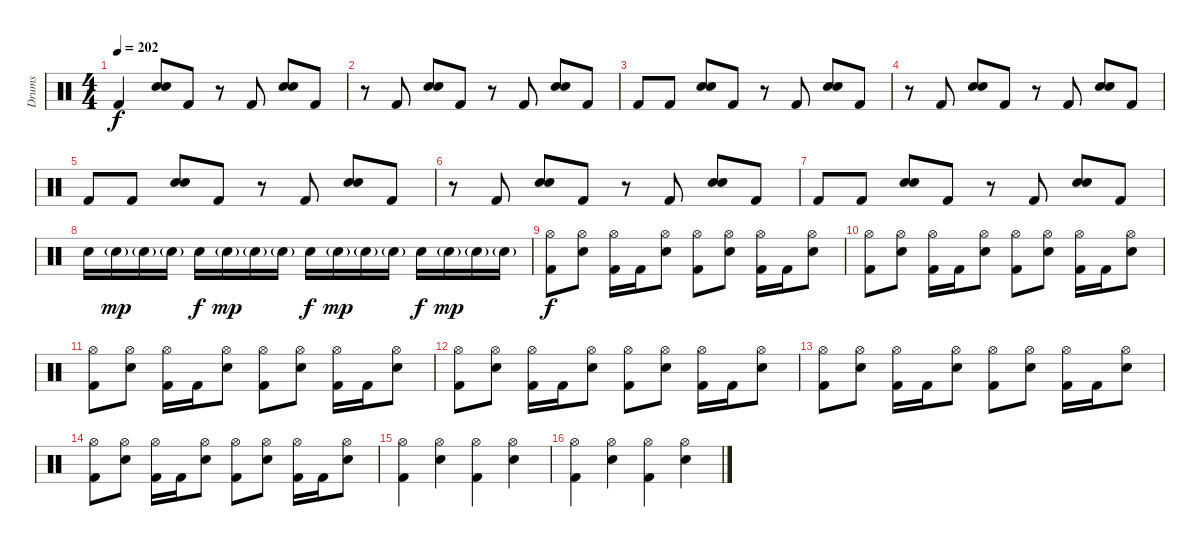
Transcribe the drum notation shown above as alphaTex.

\track ("Drums" "Drums") {instrument percussion}
\staff {score}
\articulation defaults
\ts (4 4)
\tempo 202
\clef neutral
\ks c "Kick (hit) 2".4{dy f}
("Hand Clap (hit)" "Electric Snare (hit)").8 "Kick (hit) 2".8 r.8 "Kick (hit) 2".8 ("Hand Clap (hit)" "Electric Snare (hit)").8 "Kick (hit) 2".8 |
r.8 "Kick (hit) 2".8 ("Hand Clap (hit)" "Electric Snare (hit)").8 "Kick (hit) 2".8 r.8 "Kick (hit) 2".8 ("Hand Clap (hit)" "Electric Snare (hit)").8 "Kick (hit) 2".8 |
"Kick (hit) 2".8 "Kick (hit) 2".8 ("Hand Clap (hit)" "Electric Snare (hit)").8 "Kick (hit) 2".8 r.8 "Kick (hit) 2".8 ("Hand Clap (hit)" "Electric Snare (hit)").8 "Kick (hit) 2".8 |
r.8 "Kick (hit) 2".8 ("Hand Clap (hit)" "Electric Snare (hit)").8 "Kick (hit) 2".8 r.8 "Kick (hit) 2".8 ("Hand Clap (hit)" "Electric Snare (hit)").8 "Kick (hit) 2".8 |
"Kick (hit) 2".8 "Kick (hit) 2".8 ("Hand Clap (hit)" "Electric Snare (hit)").8 "Kick (hit) 2".8 r.8 "Kick (hit) 2".8 ("Hand Clap (hit)" "Electric Snare (hit)").8 "Kick (hit) 2".8 |
r.8 "Kick (hit) 2".8 ("Hand Clap (hit)" "Electric Snare (hit)").8 "Kick (hit) 2".8 r.8 "Kick (hit) 2".8 ("Hand Clap (hit)" "Electric Snare (hit)").8 "Kick (hit) 2".8 |
"Kick (hit) 2".8 "Kick (hit) 2".8 ("Hand Clap (hit)" "Electric Snare (hit)").8 "Kick (hit) 2".8 r.8 "Kick (hit) 2".8 ("Hand Clap (hit)" "Electric Snare (hit)").8 "Kick (hit) 2".8 |
"Electric Snare (hit)".16 "Snare (hit) 2"{g}.16{dy mp} "Snare (hit) 2"{g}.16 "Snare (hit) 2"{g}.16 "Electric Snare (hit)".16{dy f} "Snare (hit) 2"{g}.16{dy mp} "Snare (hit) 2"{g}.16 "Snare (hit) 2"{g}.16 "Electric Snare (hit)".16{dy f} "Snare (hit) 2"{g}.16{dy mp} "Snare (hit) 2"{g}.16 "Snare (hit) 2"{g}.16 "Electric Snare (hit)".16{dy f} "Snare (hit) 2"{g}.16{dy mp} "Snare (hit) 2"{g}.16 "Snare (hit) 2"{g}.16 |
("Hi-Hat (open)" "Kick (hit) 2").8{dy f} ("Hi-Hat (open)" "Electric Snare (hit)").8 ("Hi-Hat (open)" "Kick (hit) 2").16 "Kick (hit) 2".16 ("Hi-Hat (open)" "Electric Snare (hit)").8 ("Hi-Hat (open)" "Kick (hit) 2").8 ("Hi-Hat (open)" "Electric Snare (hit)").8 ("Hi-Hat (open)" "Kick (hit) 2").16 "Kick (hit) 2".16 ("Hi-Hat (open)" "Electric Snare (hit)").8 |
("Hi-Hat (open)" "Kick (hit) 2").8 ("Hi-Hat (open)" "Electric Snare (hit)").8 ("Hi-Hat (open)" "Kick (hit) 2").16 "Kick (hit) 2".16 ("Hi-Hat (open)" "Electric Snare (hit)").8 ("Hi-Hat (open)" "Kick (hit) 2").8 ("Hi-Hat (open)" "Electric Snare (hit)").8 ("Hi-Hat (open)" "Kick (hit) 2").16 "Kick (hit) 2".16 ("Hi-Hat (open)" "Electric Snare (hit)").8 |
("Hi-Hat (open)" "Kick (hit) 2").8 ("Hi-Hat (open)" "Electric Snare (hit)").8 ("Hi-Hat (open)" "Kick (hit) 2").16 "Kick (hit) 2".16 ("Hi-Hat (open)" "Electric Snare (hit)").8 ("Hi-Hat (open)" "Kick (hit) 2").8 ("Hi-Hat (open)" "Electric Snare (hit)").8 ("Hi-Hat (open)" "Kick (hit) 2").16 "Kick (hit) 2".16 ("Hi-Hat (open)" "Electric Snare (hit)").8 |
("Hi-Hat (open)" "Kick (hit) 2").8 ("Hi-Hat (open)" "Electric Snare (hit)").8 ("Hi-Hat (open)" "Kick (hit) 2").16 "Kick (hit) 2".16 ("Hi-Hat (open)" "Electric Snare (hit)").8 ("Hi-Hat (open)" "Kick (hit) 2").8 ("Hi-Hat (open)" "Electric Snare (hit)").8 ("Hi-Hat (open)" "Kick (hit) 2").16 "Kick (hit) 2".16 ("Hi-Hat (open)" "Electric Snare (hit)").8 |
("Hi-Hat (open)" "Kick (hit) 2").8 ("Hi-Hat (open)" "Electric Snare (hit)").8 ("Hi-Hat (open)" "Kick (hit) 2").16 "Kick (hit) 2".16 ("Hi-Hat (open)" "Electric Snare (hit)").8 ("Hi-Hat (open)" "Kick (hit) 2").8 ("Hi-Hat (open)" "Electric Snare (hit)").8 ("Hi-Hat (open)" "Kick (hit) 2").16 "Kick (hit) 2".16 ("Hi-Hat (open)" "Electric Snare (hit)").8 |
("Hi-Hat (open)" "Kick (hit) 2").8 ("Hi-Hat (open)" "Electric Snare (hit)").8 ("Hi-Hat (open)" "Kick (hit) 2").16 "Kick (hit) 2".16 ("Hi-Hat (open)" "Electric Snare (hit)").8 ("Hi-Hat (open)" "Kick (hit) 2").8 ("Hi-Hat (open)" "Electric Snare (hit)").8 ("Hi-Hat (open)" "Kick (hit) 2").16 "Kick (hit) 2".16 ("Hi-Hat (open)" "Electric Snare (hit)").8 |
("Hi-Hat (open)" "Kick (hit) 2").4 ("Hi-Hat (open)" "Electric Snare (hit)").4 ("Hi-Hat (open)" "Kick (hit) 2").4 ("Hi-Hat (open)" "Electric Snare (hit)").4 |
("Hi-Hat (open)" "Kick (hit) 2").4 ("Hi-Hat (open)" "Electric Snare (hit)").4 ("Hi-Hat (open)" "Kick (hit) 2").4 ("Hi-Hat (open)" "Electric Snare (hit)").4
